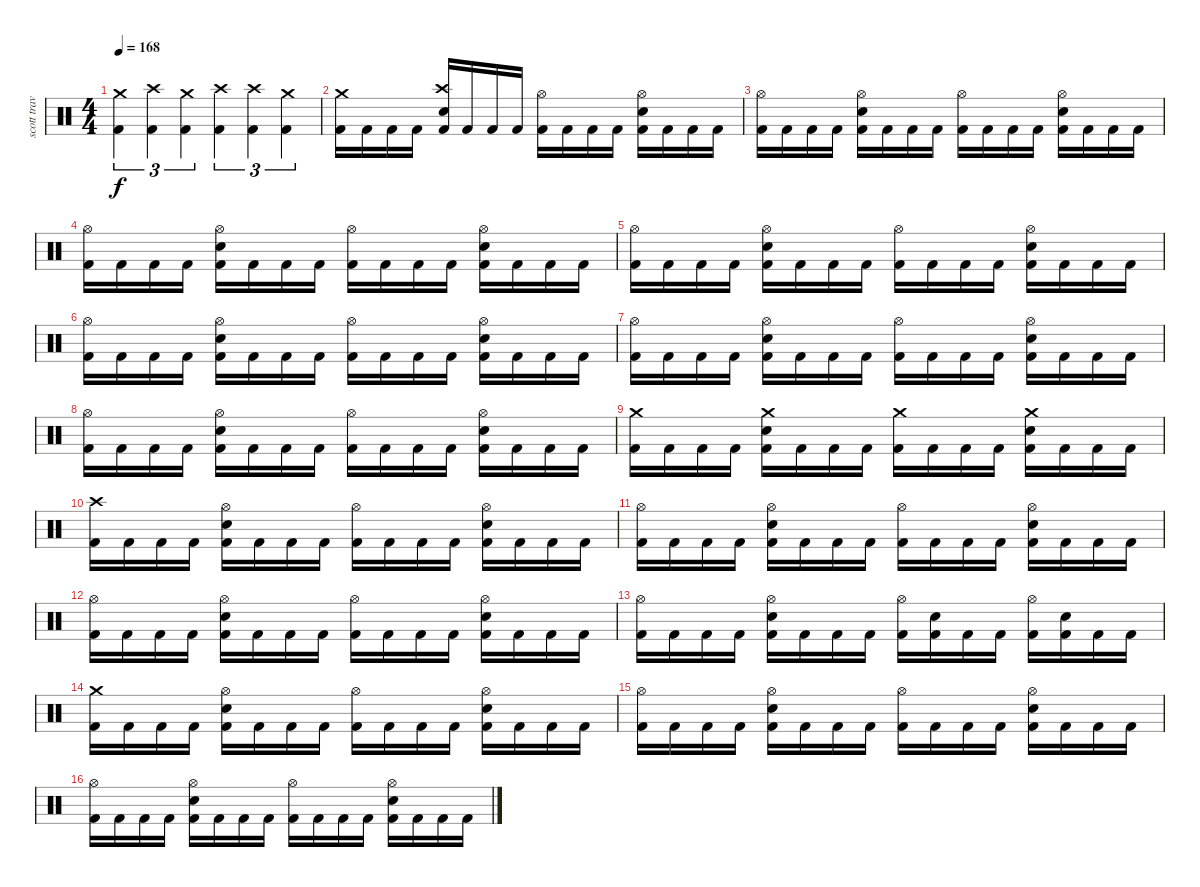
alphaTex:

\track ("scott travis" "scott trav") {instrument percussion}
\staff {score}
\articulation defaults
\ts (4 4)
\tempo 168
\clef neutral
\ks c
("Crash medium (hit)" "Kick (hit) 2").4{tu (3 2) dy f} ("Crash high (hit)" "Kick (hit) 2").4{tu (3 2)} ("Crash medium (hit)" "Kick (hit) 2").4{tu (3 2)} ("Crash high (hit)" "Kick (hit) 2").4{tu (3 2)} ("Crash high (hit)" "Kick (hit) 2").4{tu (3 2)} ("Crash medium (hit)" "Kick (hit) 2").4{tu (3 2)} |
("Crash medium (hit)" "Kick (hit) 2").16 "Kick (hit) 2".16 "Kick (hit) 2".16 "Kick (hit) 2".16 ("Crash high (hit)" "Snare (hit) 2" "Kick (hit) 2").16 "Kick (hit) 2".16 "Kick (hit) 2".16 "Kick (hit) 2".16 ("Hi-Hat (open)" "Kick (hit) 2").16 "Kick (hit) 2".16 "Kick (hit) 2".16 "Kick (hit) 2".16 ("Hi-Hat (open)" "Snare (hit) 2" "Kick (hit) 2").16 "Kick (hit) 2".16 "Kick (hit) 2".16 "Kick (hit) 2".16 |
("Hi-Hat (open)" "Kick (hit) 2").16 "Kick (hit) 2".16 "Kick (hit) 2".16 "Kick (hit) 2".16 ("Hi-Hat (open)" "Snare (hit) 2" "Kick (hit) 2").16 "Kick (hit) 2".16 "Kick (hit) 2".16 "Kick (hit) 2".16 ("Hi-Hat (open)" "Kick (hit) 2").16 "Kick (hit) 2".16 "Kick (hit) 2".16 "Kick (hit) 2".16 ("Hi-Hat (open)" "Snare (hit) 2" "Kick (hit) 2").16 "Kick (hit) 2".16 "Kick (hit) 2".16 "Kick (hit) 2".16 |
("Hi-Hat (open)" "Kick (hit) 2").16 "Kick (hit) 2".16 "Kick (hit) 2".16 "Kick (hit) 2".16 ("Hi-Hat (open)" "Snare (hit) 2" "Kick (hit) 2").16 "Kick (hit) 2".16 "Kick (hit) 2".16 "Kick (hit) 2".16 ("Hi-Hat (open)" "Kick (hit) 2").16 "Kick (hit) 2".16 "Kick (hit) 2".16 "Kick (hit) 2".16 ("Hi-Hat (open)" "Snare (hit) 2" "Kick (hit) 2").16 "Kick (hit) 2".16 "Kick (hit) 2".16 "Kick (hit) 2".16 |
("Hi-Hat (open)" "Kick (hit) 2").16 "Kick (hit) 2".16 "Kick (hit) 2".16 "Kick (hit) 2".16 ("Hi-Hat (open)" "Snare (hit) 2" "Kick (hit) 2").16 "Kick (hit) 2".16 "Kick (hit) 2".16 "Kick (hit) 2".16 ("Hi-Hat (open)" "Kick (hit) 2").16 "Kick (hit) 2".16 "Kick (hit) 2".16 "Kick (hit) 2".16 ("Hi-Hat (open)" "Snare (hit) 2" "Kick (hit) 2").16 "Kick (hit) 2".16 "Kick (hit) 2".16 "Kick (hit) 2".16 |
("Hi-Hat (open)" "Kick (hit) 2").16 "Kick (hit) 2".16 "Kick (hit) 2".16 "Kick (hit) 2".16 ("Hi-Hat (open)" "Snare (hit) 2" "Kick (hit) 2").16 "Kick (hit) 2".16 "Kick (hit) 2".16 "Kick (hit) 2".16 ("Hi-Hat (open)" "Kick (hit) 2").16 "Kick (hit) 2".16 "Kick (hit) 2".16 "Kick (hit) 2".16 ("Hi-Hat (open)" "Snare (hit) 2" "Kick (hit) 2").16 "Kick (hit) 2".16 "Kick (hit) 2".16 "Kick (hit) 2".16 |
("Hi-Hat (open)" "Kick (hit) 2").16 "Kick (hit) 2".16 "Kick (hit) 2".16 "Kick (hit) 2".16 ("Hi-Hat (open)" "Snare (hit) 2" "Kick (hit) 2").16 "Kick (hit) 2".16 "Kick (hit) 2".16 "Kick (hit) 2".16 ("Hi-Hat (open)" "Kick (hit) 2").16 "Kick (hit) 2".16 "Kick (hit) 2".16 "Kick (hit) 2".16 ("Hi-Hat (open)" "Snare (hit) 2" "Kick (hit) 2").16 "Kick (hit) 2".16 "Kick (hit) 2".16 "Kick (hit) 2".16 |
("Hi-Hat (open)" "Kick (hit) 2").16 "Kick (hit) 2".16 "Kick (hit) 2".16 "Kick (hit) 2".16 ("Hi-Hat (open)" "Snare (hit) 2" "Kick (hit) 2").16 "Kick (hit) 2".16 "Kick (hit) 2".16 "Kick (hit) 2".16 ("Hi-Hat (open)" "Kick (hit) 2").16 "Kick (hit) 2".16 "Kick (hit) 2".16 "Kick (hit) 2".16 ("Hi-Hat (open)" "Snare (hit) 2" "Kick (hit) 2").16 "Kick (hit) 2".16 "Kick (hit) 2".16 "Kick (hit) 2".16 |
("Crash medium (hit)" "Kick (hit) 2").16 "Kick (hit) 2".16 "Kick (hit) 2".16 "Kick (hit) 2".16 ("Crash medium (hit)" "Snare (hit) 2" "Kick (hit) 2").16 "Kick (hit) 2".16 "Kick (hit) 2".16 "Kick (hit) 2".16 ("Crash medium (hit)" "Kick (hit) 2").16 "Kick (hit) 2".16 "Kick (hit) 2".16 "Kick (hit) 2".16 ("Crash medium (hit)" "Snare (hit) 2" "Kick (hit) 2").16 "Kick (hit) 2".16 "Kick (hit) 2".16 "Kick (hit) 2".16 |
("Crash high (hit)" "Kick (hit) 2").16 "Kick (hit) 2".16 "Kick (hit) 2".16 "Kick (hit) 2".16 ("Hi-Hat (open)" "Snare (hit) 2" "Kick (hit) 2").16 "Kick (hit) 2".16 "Kick (hit) 2".16 "Kick (hit) 2".16 ("Hi-Hat (open)" "Kick (hit) 2").16 "Kick (hit) 2".16 "Kick (hit) 2".16 "Kick (hit) 2".16 ("Hi-Hat (open)" "Snare (hit) 2" "Kick (hit) 2").16 "Kick (hit) 2".16 "Kick (hit) 2".16 "Kick (hit) 2".16 |
("Hi-Hat (open)" "Kick (hit) 2").16 "Kick (hit) 2".16 "Kick (hit) 2".16 "Kick (hit) 2".16 ("Hi-Hat (open)" "Snare (hit) 2" "Kick (hit) 2").16 "Kick (hit) 2".16 "Kick (hit) 2".16 "Kick (hit) 2".16 ("Hi-Hat (open)" "Kick (hit) 2").16 "Kick (hit) 2".16 "Kick (hit) 2".16 "Kick (hit) 2".16 ("Hi-Hat (open)" "Snare (hit) 2" "Kick (hit) 2").16 "Kick (hit) 2".16 "Kick (hit) 2".16 "Kick (hit) 2".16 |
("Hi-Hat (open)" "Kick (hit) 2").16 "Kick (hit) 2".16 "Kick (hit) 2".16 "Kick (hit) 2".16 ("Hi-Hat (open)" "Snare (hit) 2" "Kick (hit) 2").16 "Kick (hit) 2".16 "Kick (hit) 2".16 "Kick (hit) 2".16 ("Hi-Hat (open)" "Kick (hit) 2").16 "Kick (hit) 2".16 "Kick (hit) 2".16 "Kick (hit) 2".16 ("Hi-Hat (open)" "Snare (hit) 2" "Kick (hit) 2").16 "Kick (hit) 2".16 "Kick (hit) 2".16 "Kick (hit) 2".16 |
("Hi-Hat (open)" "Kick (hit) 2").16 "Kick (hit) 2".16 "Kick (hit) 2".16 "Kick (hit) 2".16 ("Hi-Hat (open)" "Snare (hit) 2" "Kick (hit) 2").16 "Kick (hit) 2".16 "Kick (hit) 2".16 "Kick (hit) 2".16 ("Hi-Hat (open)" "Kick (hit) 2").16 ("Snare (hit) 2" "Kick (hit) 2").16 "Kick (hit) 2".16 "Kick (hit) 2".16 ("Hi-Hat (open)" "Kick (hit) 2").16 ("Snare (hit) 2" "Kick (hit) 2").16 "Kick (hit) 2".16 "Kick (hit) 2".16 |
("Crash medium (hit)" "Kick (hit) 2").16 "Kick (hit) 2".16 "Kick (hit) 2".16 "Kick (hit) 2".16 ("Hi-Hat (open)" "Snare (hit) 2" "Kick (hit) 2").16 "Kick (hit) 2".16 "Kick (hit) 2".16 "Kick (hit) 2".16 ("Hi-Hat (open)" "Kick (hit) 2").16 "Kick (hit) 2".16 "Kick (hit) 2".16 "Kick (hit) 2".16 ("Hi-Hat (open)" "Snare (hit) 2" "Kick (hit) 2").16 "Kick (hit) 2".16 "Kick (hit) 2".16 "Kick (hit) 2".16 |
("Hi-Hat (open)" "Kick (hit) 2").16 "Kick (hit) 2".16 "Kick (hit) 2".16 "Kick (hit) 2".16 ("Hi-Hat (open)" "Snare (hit) 2" "Kick (hit) 2").16 "Kick (hit) 2".16 "Kick (hit) 2".16 "Kick (hit) 2".16 ("Hi-Hat (open)" "Kick (hit) 2").16 "Kick (hit) 2".16 "Kick (hit) 2".16 "Kick (hit) 2".16 ("Hi-Hat (open)" "Snare (hit) 2" "Kick (hit) 2").16 "Kick (hit) 2".16 "Kick (hit) 2".16 "Kick (hit) 2".16 |
("Hi-Hat (open)" "Kick (hit) 2").16 "Kick (hit) 2".16 "Kick (hit) 2".16 "Kick (hit) 2".16 ("Hi-Hat (open)" "Snare (hit) 2" "Kick (hit) 2").16 "Kick (hit) 2".16 "Kick (hit) 2".16 "Kick (hit) 2".16 ("Hi-Hat (open)" "Kick (hit) 2").16 "Kick (hit) 2".16 "Kick (hit) 2".16 "Kick (hit) 2".16 ("Hi-Hat (open)" "Snare (hit) 2" "Kick (hit) 2").16 "Kick (hit) 2".16 "Kick (hit) 2".16 "Kick (hit) 2".16
